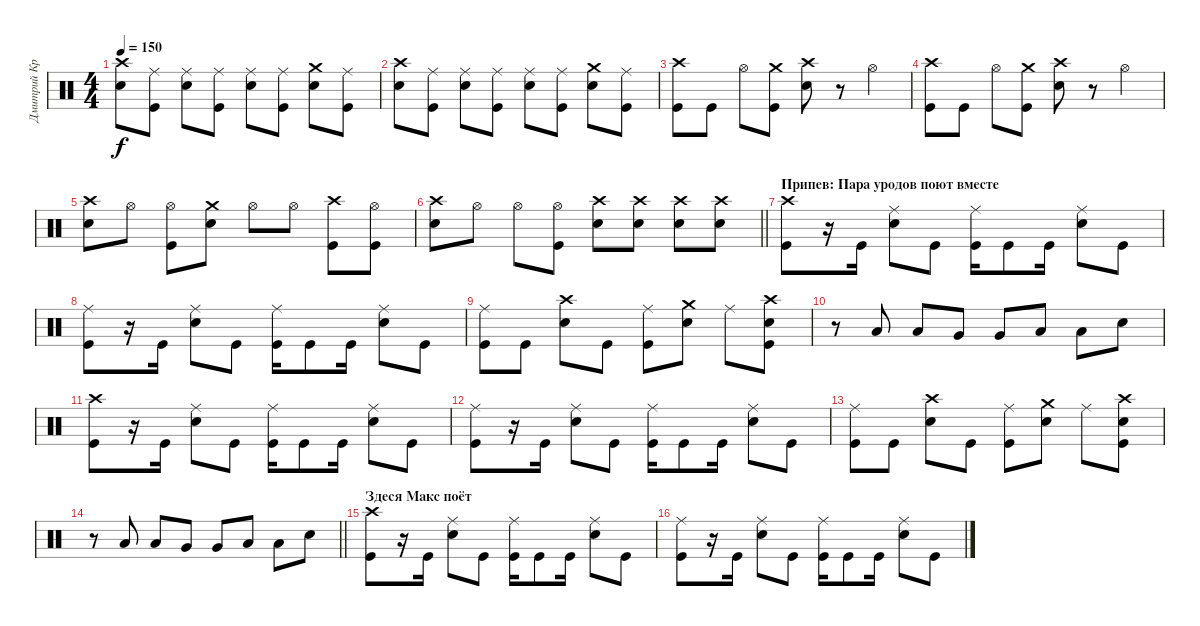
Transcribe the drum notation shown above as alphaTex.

\track ("Дмитрий Кривенков" "Дмитрий Кр") {instrument percussion}
\staff {score}
\articulation defaults
\ts (4 4)
\tempo 150
\clef neutral
\ks c
("Electric Snare (hit)" "Crash high (hit)").8{dy f} ("Ride (middle)" "Kick (hit)").8 ("Electric Snare (hit)" "Ride (middle)").8 ("Ride (middle)" "Kick (hit)").8 ("Ride (middle)" "Electric Snare (hit)").8 ("Ride (middle)" "Kick (hit)").8 ("Crash medium (hit)" "Electric Snare (hit)").8 ("Kick (hit)" "Ride (middle)").8 |
("Crash high (hit)" "Electric Snare (hit)").8 ("Kick (hit)" "Ride (middle)").8 ("Ride (middle)" "Electric Snare (hit)").8 ("Ride (middle)" "Kick (hit)").8 ("Electric Snare (hit)" "Ride (middle)").8 ("Ride (middle)" "Kick (hit)").8 ("Electric Snare (hit)" "Crash medium (hit)").8 ("Kick (hit)" "Ride (middle)").8 |
("Kick (hit)" "Crash high (hit)").8 "Kick (hit)".8 "Hi-Hat (open)".8 ("Crash medium (hit)" "Kick (hit)").8 ("Crash high (hit)" "Electric Snare (hit)").8 r.8 "Hi-Hat (open)".4 |
("Crash high (hit)" "Kick (hit)").8 "Kick (hit)".8 "Hi-Hat (open)".8 ("Kick (hit)" "Crash medium (hit)").8 ("Crash high (hit)" "Electric Snare (hit)").8 r.8 "Hi-Hat (open)".4 |
("Crash high (hit)" "Electric Snare (hit)").8 "Hi-Hat (open)".8 ("Kick (hit)" "Hi-Hat (open)").8 ("Crash medium (hit)" "Electric Snare (hit)").8 "Hi-Hat (open)".8 "Hi-Hat (open)".8 ("Kick (hit)" "Crash high (hit)").8 ("Hi-Hat (open)" "Kick (hit)").8 |
\barLineRight lightlight
("Electric Snare (hit)" "Crash high (hit)").8 "Hi-Hat (open)".8 "Hi-Hat (open)".8 ("Hi-Hat (open)" "Kick (hit)").8 ("Crash high (hit)" "Electric Snare (hit)").8 ("Crash high (hit)" "Electric Snare (hit)").8 ("Electric Snare (hit)" "Crash high (hit)").8 ("Electric Snare (hit)" "Crash high (hit)").8 |
\section ("" "Припев: Пара уродов поют вместе")
("Crash high (hit)" "Kick (hit)").8 r.16 "Kick (hit)".16 ("Ride (middle)" "Electric Snare (hit)").8 "Kick (hit)".8 ("Ride (middle)" "Kick (hit)").16 "Kick (hit)".8 "Kick (hit)".16 ("Ride (middle)" "Electric Snare (hit)").8 "Kick (hit)".8 |
("Kick (hit)" "Ride (middle)").8 r.16 "Kick (hit)".16 ("Ride (middle)" "Electric Snare (hit)").8 "Kick (hit)".8 ("Ride (middle)" "Kick (hit)").16 "Kick (hit)".8 "Kick (hit)".16 ("Ride (middle)" "Electric Snare (hit)").8 "Kick (hit)".8 |
("Ride (middle)" "Kick (hit)").8 "Kick (hit)".8 ("Crash high (hit)" "Electric Snare (hit)").8 "Kick (hit)".8 ("Ride (middle)" "Kick (hit)").8 ("Electric Snare (hit)" "Crash medium (hit)").8 "Ride (middle)".8 ("Crash high (hit)" "Electric Snare (hit)" "Kick (hit)").8 |
r.8 "Low Tom (hit)".8 "Low Tom (hit)".8 "Very Low Tom (hit)".8 "Very Low Tom (hit)".8 "Low Floor Tom (hit)".8 "Low Floor Tom (hit)".8 "Electric Snare (hit)".8 |
("Crash high (hit)" "Kick (hit)").8 r.16 "Kick (hit)".16 ("Ride (middle)" "Electric Snare (hit)").8 "Kick (hit)".8 ("Ride (middle)" "Kick (hit)").16 "Kick (hit)".8 "Kick (hit)".16 ("Ride (middle)" "Electric Snare (hit)").8 "Kick (hit)".8 |
("Kick (hit)" "Ride (middle)").8 r.16 "Kick (hit)".16 ("Ride (middle)" "Electric Snare (hit)").8 "Kick (hit)".8 ("Ride (middle)" "Kick (hit)").16 "Kick (hit)".8 "Kick (hit)".16 ("Ride (middle)" "Electric Snare (hit)").8 "Kick (hit)".8 |
("Ride (middle)" "Kick (hit)").8 "Kick (hit)".8 ("Crash high (hit)" "Electric Snare (hit)").8 "Kick (hit)".8 ("Ride (middle)" "Kick (hit)").8 ("Electric Snare (hit)" "Crash medium (hit)").8 "Ride (middle)".8 ("Crash high (hit)" "Electric Snare (hit)" "Kick (hit)").8 |
\barLineRight lightlight
r.8 "Low Tom (hit)".8 "Low Tom (hit)".8 "Very Low Tom (hit)".8 "Very Low Tom (hit)".8 "Low Floor Tom (hit)".8 "Low Floor Tom (hit)".8 "Electric Snare (hit)".8 |
\section ("" "Здеся Макс поёт")
("Crash high (hit)" "Kick (hit)").8 r.16 "Kick (hit)".16 ("Ride (middle)" "Electric Snare (hit)").8 "Kick (hit)".8 ("Ride (middle)" "Kick (hit)").16 "Kick (hit)".8 "Kick (hit)".16 ("Ride (middle)" "Electric Snare (hit)").8 "Kick (hit)".8 |
("Kick (hit)" "Ride (middle)").8 r.16 "Kick (hit)".16 ("Ride (middle)" "Electric Snare (hit)").8 "Kick (hit)".8 ("Ride (middle)" "Kick (hit)").16 "Kick (hit)".8 "Kick (hit)".16 ("Ride (middle)" "Electric Snare (hit)").8 "Kick (hit)".8
